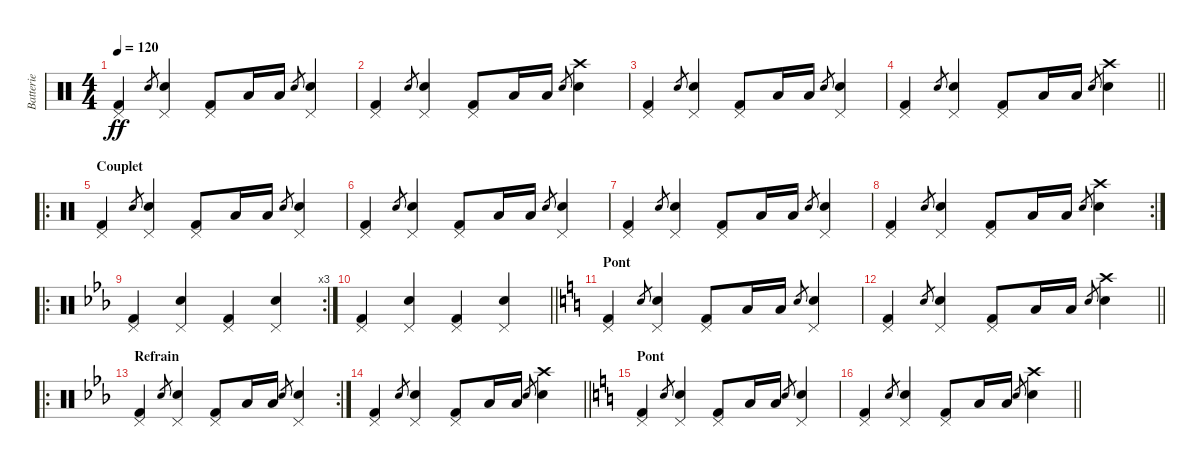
\track ("Batterie" "Batterie") {instrument percussion}
\staff {score}
\articulation defaults
\ts (4 4)
\tempo 120
\clef neutral
\ks c
("Pedal Hi-Hat (hit)" "Kick (hit) 2").4{dy ff} "Electric Snare (hit)".8{gr} ("Pedal Hi-Hat (hit)" "Electric Snare (hit)").4 ("Pedal Hi-Hat (hit)" "Kick (hit) 2").8 "Low Floor Tom (hit)".16 "Low Floor Tom (hit)".16 "Electric Snare (hit)".8{gr} ("Pedal Hi-Hat (hit)" "Electric Snare (hit)").4 |
("Pedal Hi-Hat (hit)" "Kick (hit) 2").4 "Electric Snare (hit)".8{gr} ("Pedal Hi-Hat (hit)" "Electric Snare (hit)").4 ("Pedal Hi-Hat (hit)" "Kick (hit) 2").8 "Low Floor Tom (hit)".16 "Low Floor Tom (hit)".16 "Electric Snare (hit)".8{gr} ("Crash high (hit)" "Electric Snare (hit)").4 |
("Pedal Hi-Hat (hit)" "Kick (hit) 2").4 "Electric Snare (hit)".8{gr} ("Pedal Hi-Hat (hit)" "Electric Snare (hit)").4 ("Pedal Hi-Hat (hit)" "Kick (hit) 2").8 "Low Floor Tom (hit)".16 "Low Floor Tom (hit)".16 "Electric Snare (hit)".8{gr} ("Pedal Hi-Hat (hit)" "Electric Snare (hit)").4 |
\barLineRight lightlight
("Pedal Hi-Hat (hit)" "Kick (hit) 2").4 "Electric Snare (hit)".8{gr} ("Pedal Hi-Hat (hit)" "Electric Snare (hit)").4 ("Pedal Hi-Hat (hit)" "Kick (hit) 2").8 "Low Floor Tom (hit)".16 "Low Floor Tom (hit)".16 "Electric Snare (hit)".8{gr} ("Crash high (hit)" "Electric Snare (hit)").4 |
\ro
\section ("" "Couplet")
("Pedal Hi-Hat (hit)" "Kick (hit) 2").4 "Electric Snare (hit)".8{gr} ("Pedal Hi-Hat (hit)" "Electric Snare (hit)").4 ("Pedal Hi-Hat (hit)" "Kick (hit) 2").8 "Low Floor Tom (hit)".16 "Low Floor Tom (hit)".16 "Electric Snare (hit)".8{gr} ("Pedal Hi-Hat (hit)" "Electric Snare (hit)").4 |
("Pedal Hi-Hat (hit)" "Kick (hit) 2").4 "Electric Snare (hit)".8{gr} ("Pedal Hi-Hat (hit)" "Electric Snare (hit)").4 ("Pedal Hi-Hat (hit)" "Kick (hit) 2").8 "Low Floor Tom (hit)".16 "Low Floor Tom (hit)".16 "Electric Snare (hit)".8{gr} ("Pedal Hi-Hat (hit)" "Electric Snare (hit)").4 |
("Pedal Hi-Hat (hit)" "Kick (hit) 2").4 "Electric Snare (hit)".8{gr} ("Pedal Hi-Hat (hit)" "Electric Snare (hit)").4 ("Pedal Hi-Hat (hit)" "Kick (hit) 2").8 "Low Floor Tom (hit)".16 "Low Floor Tom (hit)".16 "Electric Snare (hit)".8{gr} ("Pedal Hi-Hat (hit)" "Electric Snare (hit)").4 |
\rc 2
("Pedal Hi-Hat (hit)" "Kick (hit) 2").4 "Electric Snare (hit)".8{gr} ("Pedal Hi-Hat (hit)" "Electric Snare (hit)").4 ("Pedal Hi-Hat (hit)" "Kick (hit) 2").8 "Low Floor Tom (hit)".16 "Low Floor Tom (hit)".16 "Electric Snare (hit)".8{gr} ("Crash high (hit)" "Electric Snare (hit)").4 |
\ro
\rc 3
\ks eb
("Pedal Hi-Hat (hit)" "Kick (hit) 2").4 ("Pedal Hi-Hat (hit)" "Electric Snare (hit)").4 ("Pedal Hi-Hat (hit)" "Kick (hit) 2").4 ("Pedal Hi-Hat (hit)" "Electric Snare (hit)").4 |
\barLineRight lightlight
("Pedal Hi-Hat (hit)" "Kick (hit) 2").4 ("Pedal Hi-Hat (hit)" "Electric Snare (hit)").4 ("Pedal Hi-Hat (hit)" "Kick (hit) 2").4 ("Pedal Hi-Hat (hit)" "Electric Snare (hit)").4 |
\section ("" "Pont")
\ks c
("Pedal Hi-Hat (hit)" "Kick (hit) 2").4 "Electric Snare (hit)".8{gr} ("Pedal Hi-Hat (hit)" "Electric Snare (hit)").4 ("Pedal Hi-Hat (hit)" "Kick (hit) 2").8 "Low Floor Tom (hit)".16 "Low Floor Tom (hit)".16 "Electric Snare (hit)".8{gr} ("Pedal Hi-Hat (hit)" "Electric Snare (hit)").4 |
\barLineRight lightlight
("Pedal Hi-Hat (hit)" "Kick (hit) 2").4 "Electric Snare (hit)".8{gr} ("Pedal Hi-Hat (hit)" "Electric Snare (hit)").4 ("Pedal Hi-Hat (hit)" "Kick (hit) 2").8 "Low Floor Tom (hit)".16 "Low Floor Tom (hit)".16 "Electric Snare (hit)".8{gr} ("Crash high (hit)" "Electric Snare (hit)").4 |
\ro
\rc 2
\section ("" "Refrain")
\ks eb
("Pedal Hi-Hat (hit)" "Kick (hit) 2").4 "Electric Snare (hit)".8{gr} ("Pedal Hi-Hat (hit)" "Electric Snare (hit)").4 ("Pedal Hi-Hat (hit)" "Kick (hit) 2").8 "Low Floor Tom (hit)".16 "Low Floor Tom (hit)".16 "Electric Snare (hit)".8{gr} ("Pedal Hi-Hat (hit)" "Electric Snare (hit)").4 |
\barLineRight lightlight
("Pedal Hi-Hat (hit)" "Kick (hit) 2").4 "Electric Snare (hit)".8{gr} ("Pedal Hi-Hat (hit)" "Electric Snare (hit)").4 ("Pedal Hi-Hat (hit)" "Kick (hit) 2").8 "Low Floor Tom (hit)".16 "Low Floor Tom (hit)".16 "Electric Snare (hit)".8{gr} ("Crash high (hit)" "Electric Snare (hit)").4 |
\section ("" "Pont")
\ks c
("Pedal Hi-Hat (hit)" "Kick (hit) 2").4 "Electric Snare (hit)".8{gr} ("Pedal Hi-Hat (hit)" "Electric Snare (hit)").4 ("Pedal Hi-Hat (hit)" "Kick (hit) 2").8 "Low Floor Tom (hit)".16 "Low Floor Tom (hit)".16 "Electric Snare (hit)".8{gr} ("Pedal Hi-Hat (hit)" "Electric Snare (hit)").4 |
\barLineRight lightlight
("Pedal Hi-Hat (hit)" "Kick (hit) 2").4 "Electric Snare (hit)".8{gr} ("Pedal Hi-Hat (hit)" "Electric Snare (hit)").4 ("Pedal Hi-Hat (hit)" "Kick (hit) 2").8 "Low Floor Tom (hit)".16 "Low Floor Tom (hit)".16 "Electric Snare (hit)".8{gr} ("Crash high (hit)" "Electric Snare (hit)").4
